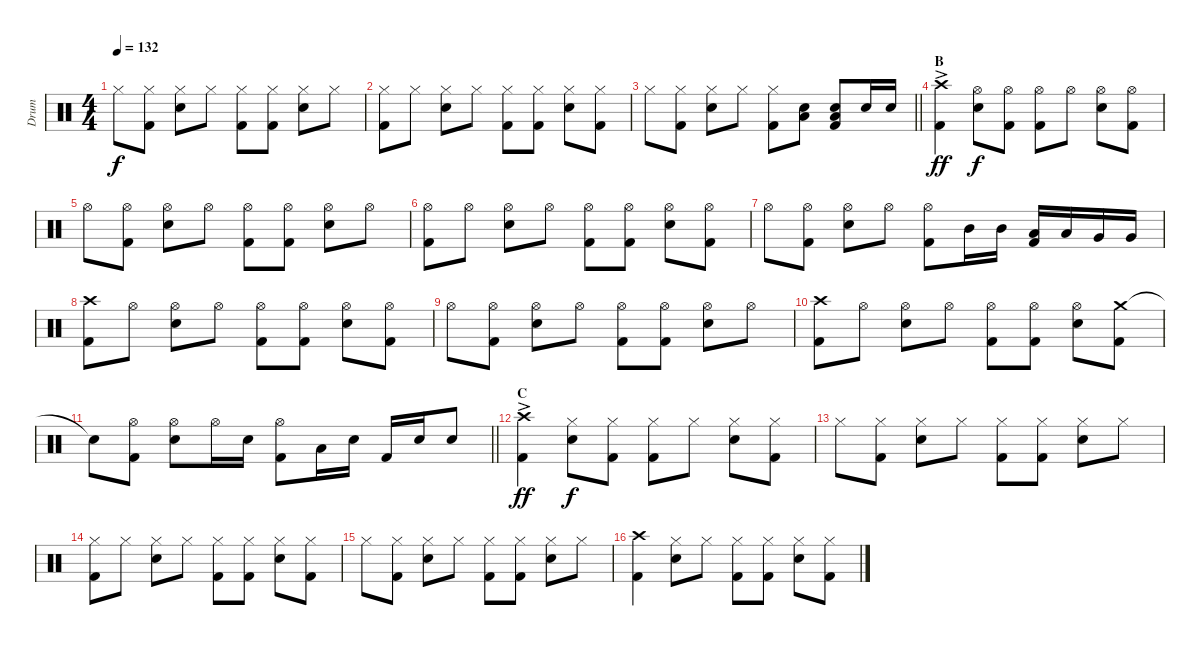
\track ("Drum" "Drum") {instrument percussion}
\staff {score}
\articulation defaults
\ts (4 4)
\tempo 132
\clef neutral
\ks c "Hi-Hat (closed)".8{dy f}
("Hi-Hat (closed)" "Kick (hit) 2").8 ("Hi-Hat (closed)" "Electric Snare (hit)").8 "Hi-Hat (closed)".8 ("Hi-Hat (closed)" "Kick (hit) 2").8 ("Hi-Hat (closed)" "Kick (hit) 2").8 ("Hi-Hat (closed)" "Electric Snare (hit)").8 "Hi-Hat (closed)".8 |
("Hi-Hat (closed)" "Kick (hit) 2").8 "Hi-Hat (closed)".8 ("Hi-Hat (closed)" "Electric Snare (hit)").8 "Hi-Hat (closed)".8 ("Hi-Hat (closed)" "Kick (hit) 2").8 ("Hi-Hat (closed)" "Kick (hit) 2").8 ("Hi-Hat (closed)" "Electric Snare (hit)").8 ("Hi-Hat (closed)" "Kick (hit) 2").8 |
\barLineRight lightlight "Hi-Hat (closed)".8
("Hi-Hat (closed)" "Kick (hit) 2").8 ("Hi-Hat (closed)" "Electric Snare (hit)").8 "Hi-Hat (closed)".8 ("Hi-Hat (closed)" "Kick (hit) 2").8 ("Low Tom (hit)" "Electric Snare (hit)").8 ("Low Tom (hit)" "Electric Snare (hit)" "Kick (hit) 2").8 "Electric Snare (hit)".16 "Electric Snare (hit)".16 |
\section ("" "B")
("Crash high (hit)"{ac} "Kick (hit) 2").4{dy ff} ("Hi-Hat (open)" "Electric Snare (hit)").8{dy f} ("Hi-Hat (open)" "Kick (hit) 2").8 ("Hi-Hat (open)" "Kick (hit) 2").8 "Hi-Hat (open)".8 ("Hi-Hat (open)" "Electric Snare (hit)").8 ("Hi-Hat (open)" "Kick (hit) 2").8 |
"Hi-Hat (open)".8 ("Hi-Hat (open)" "Kick (hit) 2").8 ("Hi-Hat (open)" "Electric Snare (hit)").8 "Hi-Hat (open)".8 ("Hi-Hat (open)" "Kick (hit) 2").8 ("Hi-Hat (open)" "Kick (hit) 2").8 ("Hi-Hat (open)" "Electric Snare (hit)").8 "Hi-Hat (open)".8 |
("Hi-Hat (open)" "Kick (hit) 2").8 "Hi-Hat (open)".8 ("Hi-Hat (open)" "Electric Snare (hit)").8 "Hi-Hat (open)".8 ("Hi-Hat (open)" "Kick (hit) 2").8 ("Hi-Hat (open)" "Kick (hit) 2").8 ("Hi-Hat (open)" "Electric Snare (hit)").8 ("Hi-Hat (open)" "Kick (hit) 2").8 |
"Hi-Hat (open)".8 ("Hi-Hat (open)" "Kick (hit) 2").8 ("Hi-Hat (open)" "Electric Snare (hit)").8 "Hi-Hat (open)".8 ("Hi-Hat (open)" "Kick (hit) 2").8 "Mid Tom (hit)".16 "Mid Tom (hit)".16 ("Low Tom (hit)" "Kick (hit) 2").16 "Low Tom (hit)".16 "Very Low Tom (hit)".16 "Very Low Tom (hit)".16 |
("Crash high (hit)" "Kick (hit) 2").8 "Hi-Hat (open)".8 ("Hi-Hat (open)" "Electric Snare (hit)").8 "Hi-Hat (open)".8 ("Hi-Hat (open)" "Kick (hit) 2").8 ("Hi-Hat (open)" "Kick (hit) 2").8 ("Hi-Hat (open)" "Electric Snare (hit)").8 ("Hi-Hat (open)" "Kick (hit) 2").8 |
"Hi-Hat (open)".8 ("Hi-Hat (open)" "Kick (hit) 2").8 ("Hi-Hat (open)" "Electric Snare (hit)").8 "Hi-Hat (open)".8 ("Hi-Hat (open)" "Kick (hit) 2").8 ("Hi-Hat (open)" "Kick (hit) 2").8 ("Hi-Hat (open)" "Electric Snare (hit)").8 "Hi-Hat (open)".8 |
("Crash high (hit)" "Kick (hit) 2").8 "Hi-Hat (open)".8 ("Hi-Hat (open)" "Electric Snare (hit)").8 "Hi-Hat (open)".8 ("Hi-Hat (open)" "Kick (hit) 2").8 ("Hi-Hat (open)" "Kick (hit) 2").8 ("Hi-Hat (open)" "Electric Snare (hit)").8 ("Crash medium (hit)" "Kick (hit) 2").8 |
\barLineRight lightlight "Snare (hit)"{t}.8
("Hi-Hat (open)" "Kick (hit) 2").8 ("Hi-Hat (open)" "Electric Snare (hit)").8 "Hi-Hat (open)".16 "Electric Snare (hit)".16 ("Hi-Hat (open)" "Kick (hit) 2").8 "Low Tom (hit)".16 "Electric Snare (hit)".16 "Kick (hit) 2".16 "Electric Snare (hit)".16 "Electric Snare (hit)".8 |
\section ("" "C")
("Crash high (hit)"{ac} "Kick (hit) 2").4{dy ff} ("Hi-Hat (closed)" "Electric Snare (hit)").8{dy f} ("Hi-Hat (closed)" "Kick (hit) 2").8 ("Hi-Hat (closed)" "Kick (hit) 2").8 "Hi-Hat (closed)".8 ("Hi-Hat (closed)" "Electric Snare (hit)").8 ("Hi-Hat (closed)" "Kick (hit) 2").8 |
"Hi-Hat (closed)".8 ("Hi-Hat (closed)" "Kick (hit) 2").8 ("Hi-Hat (closed)" "Electric Snare (hit)").8 "Hi-Hat (closed)".8 ("Hi-Hat (closed)" "Kick (hit) 2").8 ("Hi-Hat (closed)" "Kick (hit) 2").8 ("Hi-Hat (closed)" "Electric Snare (hit)").8 "Hi-Hat (closed)".8 |
("Hi-Hat (closed)" "Kick (hit) 2").8 "Hi-Hat (closed)".8 ("Hi-Hat (closed)" "Electric Snare (hit)").8 "Hi-Hat (closed)".8 ("Hi-Hat (closed)" "Kick (hit) 2").8 ("Hi-Hat (closed)" "Kick (hit) 2").8 ("Hi-Hat (closed)" "Electric Snare (hit)").8 ("Hi-Hat (closed)" "Kick (hit) 2").8 |
"Hi-Hat (closed)".8 ("Hi-Hat (closed)" "Kick (hit) 2").8 ("Hi-Hat (closed)" "Electric Snare (hit)").8 "Hi-Hat (closed)".8 ("Hi-Hat (closed)" "Kick (hit) 2").8 ("Hi-Hat (closed)" "Kick (hit) 2").8 ("Hi-Hat (closed)" "Electric Snare (hit)").8 "Hi-Hat (closed)".8 |
("Crash high (hit)" "Kick (hit) 2").4 ("Hi-Hat (closed)" "Electric Snare (hit)").8 "Hi-Hat (closed)".8 ("Hi-Hat (closed)" "Kick (hit) 2").8 ("Hi-Hat (closed)" "Kick (hit) 2").8 ("Hi-Hat (closed)" "Electric Snare (hit)").8 ("Hi-Hat (closed)" "Kick (hit) 2").8
